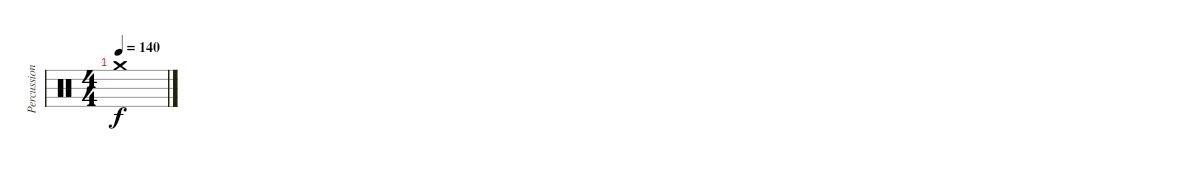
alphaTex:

\track ("Percussion" "Percussion") {instrument percussion}
\staff {score}
\articulation defaults
\ts (4 4)
\tempo 140
\clef neutral
\ks c "Crash medium (hit)".1{dy f}
